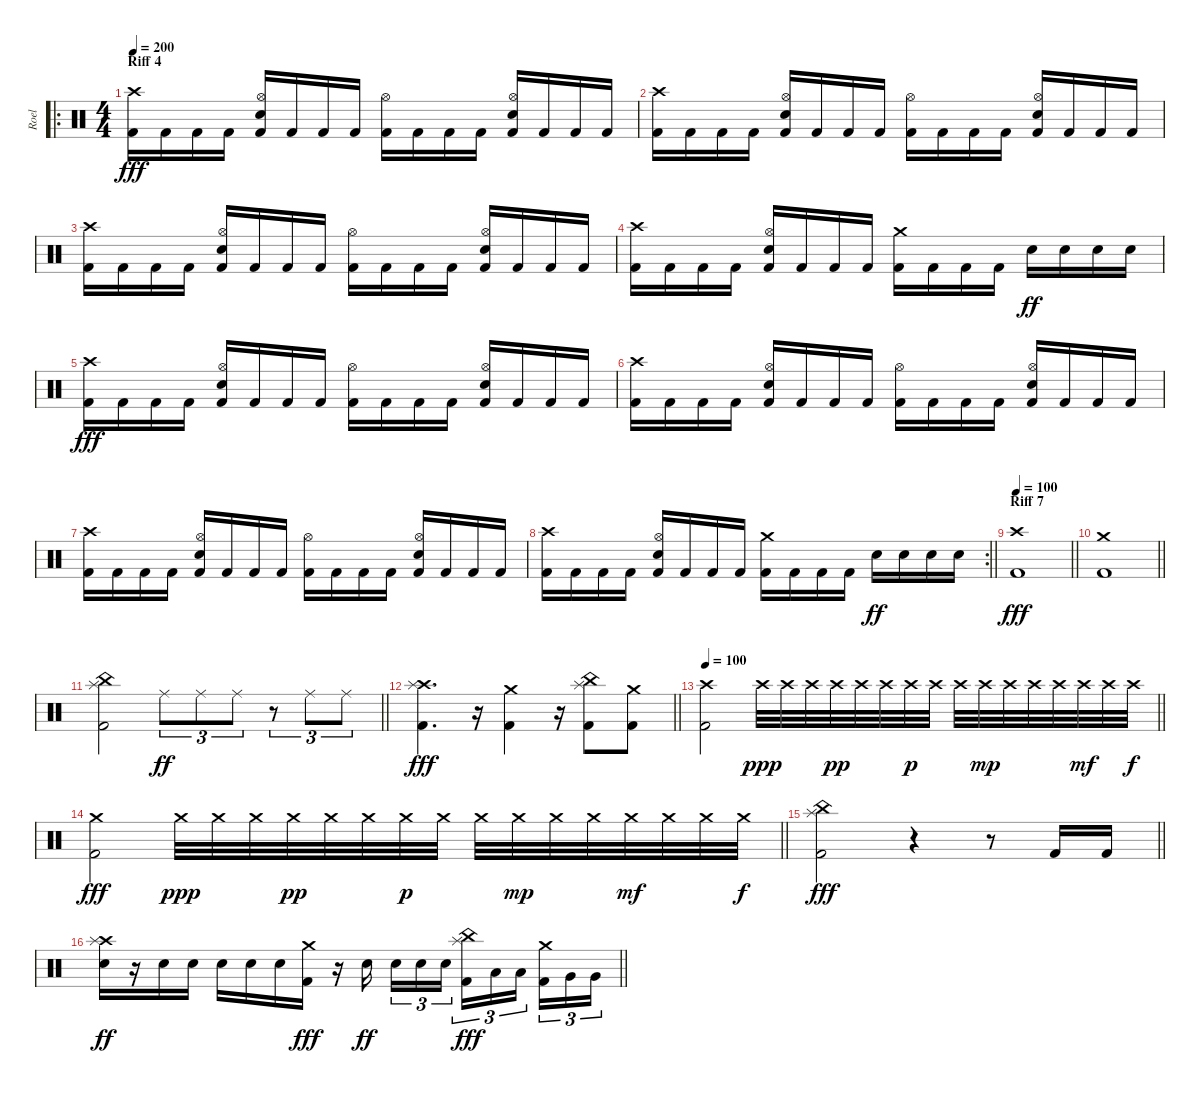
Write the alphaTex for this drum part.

\track ("Roel" "Roel") {instrument percussion}
\staff {score}
\articulation defaults
\ro
\ts (4 4)
\section ("" "Riff 4")
\tempo 200
\clef neutral
\ks c
("Crash high (hit)" "Kick (hit) 2").16{dy fff} "Kick (hit) 2".16 "Kick (hit) 2".16 "Kick (hit) 2".16 ("Hi-Hat (open)" "Snare (hit) 2" "Kick (hit) 2").16 "Kick (hit) 2".16 "Kick (hit) 2".16 "Kick (hit) 2".16 ("Hi-Hat (open)" "Kick (hit) 2").16 "Kick (hit) 2".16 "Kick (hit) 2".16 "Kick (hit) 2".16 ("Hi-Hat (open)" "Snare (hit) 2" "Kick (hit) 2").16 "Kick (hit) 2".16 "Kick (hit) 2".16 "Kick (hit) 2".16 |
("Crash high (hit)" "Kick (hit) 2").16 "Kick (hit) 2".16 "Kick (hit) 2".16 "Kick (hit) 2".16 ("Hi-Hat (open)" "Snare (hit) 2" "Kick (hit) 2").16 "Kick (hit) 2".16 "Kick (hit) 2".16 "Kick (hit) 2".16 ("Hi-Hat (open)" "Kick (hit) 2").16 "Kick (hit) 2".16 "Kick (hit) 2".16 "Kick (hit) 2".16 ("Hi-Hat (open)" "Snare (hit) 2" "Kick (hit) 2").16 "Kick (hit) 2".16 "Kick (hit) 2".16 "Kick (hit) 2".16 |
("Crash high (hit)" "Kick (hit) 2").16 "Kick (hit) 2".16 "Kick (hit) 2".16 "Kick (hit) 2".16 ("Hi-Hat (open)" "Snare (hit) 2" "Kick (hit) 2").16 "Kick (hit) 2".16 "Kick (hit) 2".16 "Kick (hit) 2".16 ("Hi-Hat (open)" "Kick (hit) 2").16 "Kick (hit) 2".16 "Kick (hit) 2".16 "Kick (hit) 2".16 ("Hi-Hat (open)" "Snare (hit) 2" "Kick (hit) 2").16 "Kick (hit) 2".16 "Kick (hit) 2".16 "Kick (hit) 2".16 |
("Crash high (hit)" "Kick (hit) 2").16 "Kick (hit) 2".16 "Kick (hit) 2".16 "Kick (hit) 2".16 ("Hi-Hat (open)" "Snare (hit) 2" "Kick (hit) 2").16 "Kick (hit) 2".16 "Kick (hit) 2".16 "Kick (hit) 2".16 ("Crash medium (hit)" "Kick (hit) 2").16 "Kick (hit) 2".16 "Kick (hit) 2".16 "Kick (hit) 2".16 "Snare (hit) 2".16{dy ff} "Snare (hit) 2".16 "Snare (hit) 2".16 "Snare (hit) 2".16 |
("Crash high (hit)" "Kick (hit) 2").16{dy fff} "Kick (hit) 2".16 "Kick (hit) 2".16 "Kick (hit) 2".16 ("Hi-Hat (open)" "Snare (hit) 2" "Kick (hit) 2").16 "Kick (hit) 2".16 "Kick (hit) 2".16 "Kick (hit) 2".16 ("Hi-Hat (open)" "Kick (hit) 2").16 "Kick (hit) 2".16 "Kick (hit) 2".16 "Kick (hit) 2".16 ("Hi-Hat (open)" "Snare (hit) 2" "Kick (hit) 2").16 "Kick (hit) 2".16 "Kick (hit) 2".16 "Kick (hit) 2".16 |
("Crash high (hit)" "Kick (hit) 2").16 "Kick (hit) 2".16 "Kick (hit) 2".16 "Kick (hit) 2".16 ("Hi-Hat (open)" "Snare (hit) 2" "Kick (hit) 2").16 "Kick (hit) 2".16 "Kick (hit) 2".16 "Kick (hit) 2".16 ("Hi-Hat (open)" "Kick (hit) 2").16 "Kick (hit) 2".16 "Kick (hit) 2".16 "Kick (hit) 2".16 ("Hi-Hat (open)" "Snare (hit) 2" "Kick (hit) 2").16 "Kick (hit) 2".16 "Kick (hit) 2".16 "Kick (hit) 2".16 |
("Crash high (hit)" "Kick (hit) 2").16 "Kick (hit) 2".16 "Kick (hit) 2".16 "Kick (hit) 2".16 ("Hi-Hat (open)" "Snare (hit) 2" "Kick (hit) 2").16 "Kick (hit) 2".16 "Kick (hit) 2".16 "Kick (hit) 2".16 ("Hi-Hat (open)" "Kick (hit) 2").16 "Kick (hit) 2".16 "Kick (hit) 2".16 "Kick (hit) 2".16 ("Hi-Hat (open)" "Snare (hit) 2" "Kick (hit) 2").16 "Kick (hit) 2".16 "Kick (hit) 2".16 "Kick (hit) 2".16 |
\rc 2
\barLineRight lightlight
("Crash high (hit)" "Kick (hit) 2").16 "Kick (hit) 2".16 "Kick (hit) 2".16 "Kick (hit) 2".16 ("Hi-Hat (open)" "Snare (hit) 2" "Kick (hit) 2").16 "Kick (hit) 2".16 "Kick (hit) 2".16 "Kick (hit) 2".16 ("Crash medium (hit)" "Kick (hit) 2").16 "Kick (hit) 2".16 "Kick (hit) 2".16 "Kick (hit) 2".16 "Snare (hit) 2".16{dy ff} "Snare (hit) 2".16 "Snare (hit) 2".16 "Snare (hit) 2".16 |
\section ("" "Riff 7")
\tempo 100
\barLineRight lightlight
("Crash high (hit)" "Kick (hit) 2").1{dy fff} |
\barLineRight lightlight
("Crash medium (hit)" "Kick (hit) 2").1 |
\barLineRight lightlight
("China (hit)" "Splash (hit)" "Kick (hit) 2").2 "Ride (middle)".8{tu (3 2) dy ff} "Ride (middle)".8{tu (3 2)} "Ride (middle)".8{tu (3 2)} r.8{tu (3 2)} "Ride (middle)".8{tu (3 2)} "Ride (middle)".8{tu (3 2)} |
\barLineRight lightlight
("Crash high (hit)" "Splash (hit)" "Kick (hit) 2").4{d dy fff} r.16 ("Crash medium (hit)" "Kick (hit) 2").4 r.16 ("China (hit)" "Splash (hit)" "Kick (hit) 2").8 ("Crash medium (hit)" "Kick (hit) 2").8 |
\tempo 100
\barLineRight lightlight
("Crash high (hit)" "Kick (hit) 2").2 "Crash high (hit)".32{dy ppp} "Crash high (hit)".32 "Crash high (hit)".32 "Crash high (hit)".32{dy pp} "Crash high (hit)".32 "Crash high (hit)".32 "Crash high (hit)".32{dy p} "Crash high (hit)".32 "Crash high (hit)".32 "Crash high (hit)".32{dy mp} "Crash high (hit)".32 "Crash high (hit)".32 "Crash high (hit)".32 "Crash high (hit)".32{dy mf} "Crash high (hit)".32 "Crash high (hit)".32{dy f} |
\barLineRight lightlight
("Crash medium (hit)" "Kick (hit) 2").2{dy fff} "Crash medium (hit)".32{dy ppp} "Crash medium (hit)".32 "Crash medium (hit)".32 "Crash medium (hit)".32{dy pp} "Crash medium (hit)".32 "Crash medium (hit)".32 "Crash medium (hit)".32{dy p} "Crash medium (hit)".32 "Crash medium (hit)".32 "Crash medium (hit)".32{dy mp} "Crash medium (hit)".32 "Crash medium (hit)".32 "Crash medium (hit)".32{dy mf} "Crash medium (hit)".32 "Crash medium (hit)".32 "Crash medium (hit)".32{dy f} |
\barLineRight lightlight
("China (hit)" "Splash (hit)" "Kick (hit) 2").2{dy fff} r.4 r.8 "Kick (hit) 2".16 "Kick (hit) 2".16 |
\barLineRight lightlight
("Crash high (hit)" "Splash (hit)" "Snare (hit) 2").16{dy ff} r.16 "Snare (hit) 2".16 "Snare (hit) 2".16 "Snare (hit) 2".16 "Snare (hit) 2".16 "Snare (hit) 2".16 ("Crash medium (hit)" "Kick (hit) 2").16{dy fff} r.16 "Snare (hit) 2".16{dy ff beam splitsecondary} "Snare (hit) 2".16{tu (3 2)} "Snare (hit) 2".16{tu (3 2)} "Snare (hit) 2".16{tu (3 2)} ("China (hit)" "Splash (hit)" "Kick (hit) 2").16{tu (3 2) dy fff} "Low Tom (hit)".16{tu (3 2)} "Low Tom (hit)".16{tu (3 2) beam splitsecondary} ("Crash medium (hit)" "Kick (hit) 2").16{tu (3 2)} "Very Low Tom (hit)".16{tu (3 2)} "Very Low Tom (hit)".16{tu (3 2)}
